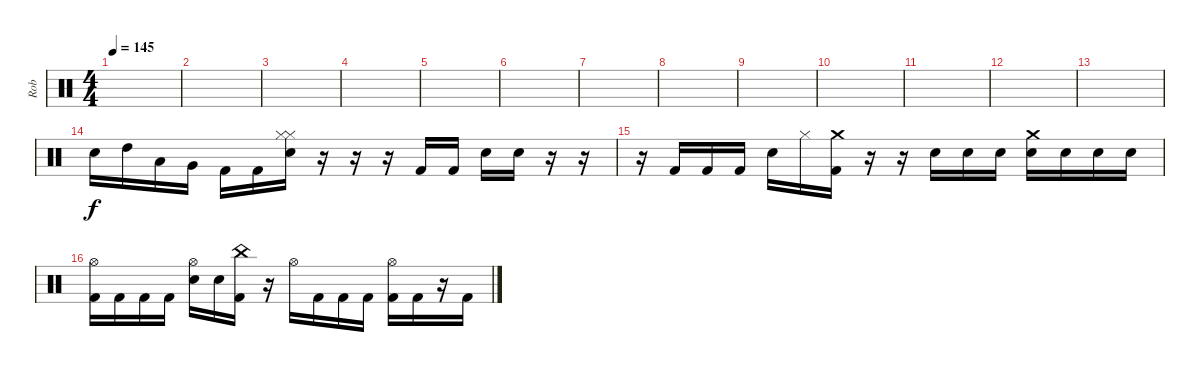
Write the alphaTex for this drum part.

\track ("Rob" "Rob") {instrument percussion}
\staff {score}
\articulation defaults
\ts (4 4)
\tempo 145
\clef neutral
\ks c
|
|
|
|
|
|
|
|
|
|
|
|
|
"Electric Snare (hit)".16 "High Tom (hit)".16 "Low Tom (hit)".16 "Very Low Tom (hit)".16 "Kick (hit) 2".16 "Kick (hit) 2".16 ("Electric Snare (hit)" "Hi-Hat (closed)" "Hi-Hat (closed)").16 r.16 r.16 r.16 "Kick (hit) 2".16 "Kick (hit) 2".16 "Electric Snare (hit)".16 "Electric Snare (hit)".16 r.16 r.16 |
r.16 "Kick (hit) 2".16 "Kick (hit) 2".16 "Kick (hit) 2".16 "Electric Snare (hit)".16 "Hi-Hat (closed)".16 ("Crash medium (hit)" "Kick (hit) 2").16 r.16 r.16 "Electric Snare (hit)".16 "Electric Snare (hit)".16 "Electric Snare (hit)".16 ("Crash medium (hit)" "Electric Snare (hit)").16 "Electric Snare (hit)".16 "Electric Snare (hit)".16 "Electric Snare (hit)".16 |
("Kick (hit) 2" "Hi-Hat (open)").16 "Kick (hit) 2".16 "Kick (hit) 2".16 "Kick (hit) 2".16 ("Electric Snare (hit)" "Hi-Hat (open)").16 "Electric Snare (hit)".16 ("China (hit)" "Kick (hit) 2").16 r.16 "Hi-Hat (open)".16 "Kick (hit) 2".16 "Kick (hit) 2".16 "Kick (hit) 2".16 ("Hi-Hat (open)" "Kick (hit) 2").16 "Kick (hit) 2".16 r.16 "Kick (hit) 2".16
